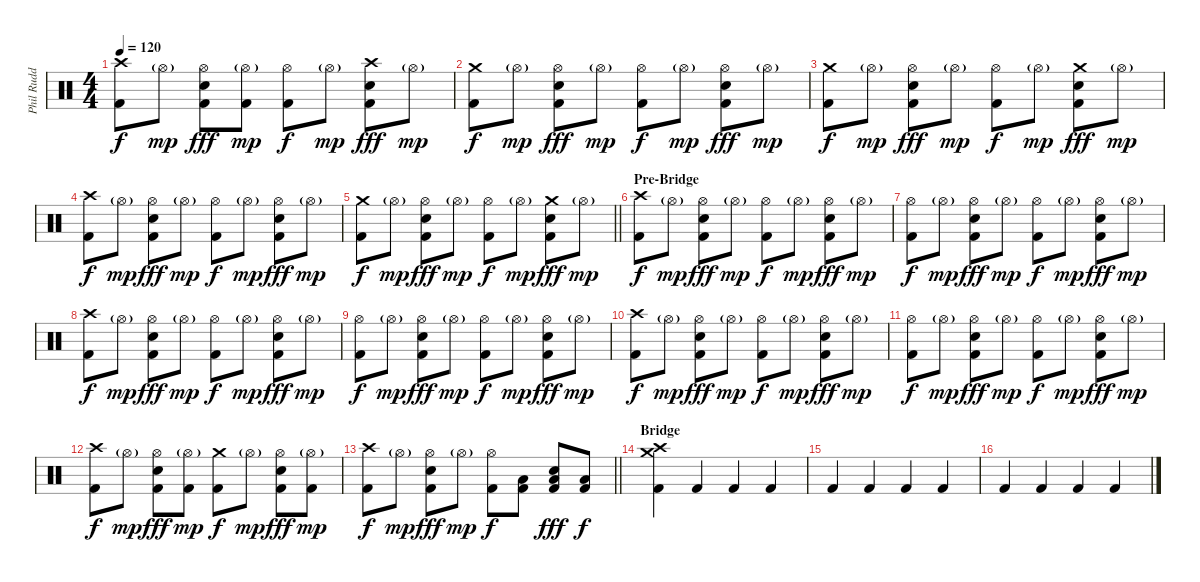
\track ("Phil Rudd" "Phil Rudd") {instrument percussion}
\staff {score}
\articulation defaults
\ts (4 4)
\tempo 120
\clef neutral
\ks c
("Crash high (hit)" "Kick (hit) 2").8{dy f} "Hi-Hat (open)"{g}.8{dy mp} ("Hi-Hat (open)" "Electric Snare (hit)" "Kick (hit) 2").8{dy fff} ("Hi-Hat (open)"{g} "Kick (hit) 2").8{dy mp} ("Hi-Hat (open)" "Kick (hit) 2").8{dy f} "Hi-Hat (open)"{g}.8{dy mp} ("Crash high (hit)" "Electric Snare (hit)" "Kick (hit) 2").8{dy fff} "Hi-Hat (open)"{g}.8{dy mp} |
("Crash medium (hit)" "Kick (hit) 2").8{dy f} "Hi-Hat (open)"{g}.8{dy mp} ("Hi-Hat (open)" "Electric Snare (hit)" "Kick (hit) 2").8{dy fff} "Hi-Hat (open)"{g}.8{dy mp} ("Hi-Hat (open)" "Kick (hit) 2").8{dy f} "Hi-Hat (open)"{g}.8{dy mp} ("Hi-Hat (open)" "Electric Snare (hit)" "Kick (hit) 2").8{dy fff} "Hi-Hat (open)"{g}.8{dy mp} |
("Crash medium (hit)" "Kick (hit) 2").8{dy f} "Hi-Hat (open)"{g}.8{dy mp} ("Hi-Hat (open)" "Electric Snare (hit)" "Kick (hit) 2").8{dy fff} "Hi-Hat (open)"{g}.8{dy mp} ("Hi-Hat (open)" "Kick (hit) 2").8{dy f} "Hi-Hat (open)"{g}.8{dy mp} ("Crash medium (hit)" "Electric Snare (hit)" "Kick (hit) 2").8{dy fff} "Hi-Hat (open)"{g}.8{dy mp} |
("Crash high (hit)" "Kick (hit) 2").8{dy f} "Hi-Hat (open)"{g}.8{dy mp} ("Hi-Hat (open)" "Electric Snare (hit)" "Kick (hit) 2").8{dy fff} "Hi-Hat (open)"{g}.8{dy mp} ("Hi-Hat (open)" "Kick (hit) 2").8{dy f} "Hi-Hat (open)"{g}.8{dy mp} ("Hi-Hat (open)" "Electric Snare (hit)" "Kick (hit) 2").8{dy fff} "Hi-Hat (open)"{g}.8{dy mp} |
\barLineRight lightlight
("Crash medium (hit)" "Kick (hit) 2").8{dy f} "Hi-Hat (open)"{g}.8{dy mp} ("Hi-Hat (open)" "Electric Snare (hit)" "Kick (hit) 2").8{dy fff} "Hi-Hat (open)"{g}.8{dy mp} ("Hi-Hat (open)" "Kick (hit) 2").8{dy f} "Hi-Hat (open)"{g}.8{dy mp} ("Crash medium (hit)" "Electric Snare (hit)" "Kick (hit) 2").8{dy fff} "Hi-Hat (open)"{g}.8{dy mp} |
\section ("" "Pre-Bridge")
("Crash high (hit)" "Kick (hit) 2").8{dy f} "Hi-Hat (open)"{g}.8{dy mp} ("Hi-Hat (open)" "Electric Snare (hit)" "Kick (hit) 2").8{dy fff} "Hi-Hat (open)"{g}.8{dy mp} ("Hi-Hat (open)" "Kick (hit) 2").8{dy f} "Hi-Hat (open)"{g}.8{dy mp} ("Hi-Hat (open)" "Electric Snare (hit)" "Kick (hit) 2").8{dy fff} "Hi-Hat (open)"{g}.8{dy mp} |
("Hi-Hat (open)" "Kick (hit) 2").8{dy f} "Hi-Hat (open)"{g}.8{dy mp} ("Hi-Hat (open)" "Electric Snare (hit)" "Kick (hit) 2").8{dy fff} "Hi-Hat (open)"{g}.8{dy mp} ("Hi-Hat (open)" "Kick (hit) 2").8{dy f} "Hi-Hat (open)"{g}.8{dy mp} ("Hi-Hat (open)" "Electric Snare (hit)" "Kick (hit) 2").8{dy fff} "Hi-Hat (open)"{g}.8{dy mp} |
("Crash high (hit)" "Kick (hit) 2").8{dy f} "Hi-Hat (open)"{g}.8{dy mp} ("Hi-Hat (open)" "Electric Snare (hit)" "Kick (hit) 2").8{dy fff} "Hi-Hat (open)"{g}.8{dy mp} ("Hi-Hat (open)" "Kick (hit) 2").8{dy f} "Hi-Hat (open)"{g}.8{dy mp} ("Hi-Hat (open)" "Electric Snare (hit)" "Kick (hit) 2").8{dy fff} "Hi-Hat (open)"{g}.8{dy mp} |
("Hi-Hat (open)" "Kick (hit) 2").8{dy f} "Hi-Hat (open)"{g}.8{dy mp} ("Hi-Hat (open)" "Electric Snare (hit)" "Kick (hit) 2").8{dy fff} "Hi-Hat (open)"{g}.8{dy mp} ("Hi-Hat (open)" "Kick (hit) 2").8{dy f} "Hi-Hat (open)"{g}.8{dy mp} ("Hi-Hat (open)" "Electric Snare (hit)" "Kick (hit) 2").8{dy fff} "Hi-Hat (open)"{g}.8{dy mp} |
("Crash high (hit)" "Kick (hit) 2").8{dy f} "Hi-Hat (open)"{g}.8{dy mp} ("Hi-Hat (open)" "Electric Snare (hit)" "Kick (hit) 2").8{dy fff} "Hi-Hat (open)"{g}.8{dy mp} ("Hi-Hat (open)" "Kick (hit) 2").8{dy f} "Hi-Hat (open)"{g}.8{dy mp} ("Hi-Hat (open)" "Electric Snare (hit)" "Kick (hit) 2").8{dy fff} "Hi-Hat (open)"{g}.8{dy mp} |
("Hi-Hat (open)" "Kick (hit) 2").8{dy f} "Hi-Hat (open)"{g}.8{dy mp} ("Hi-Hat (open)" "Electric Snare (hit)" "Kick (hit) 2").8{dy fff} "Hi-Hat (open)"{g}.8{dy mp} ("Hi-Hat (open)" "Kick (hit) 2").8{dy f} "Hi-Hat (open)"{g}.8{dy mp} ("Hi-Hat (open)" "Electric Snare (hit)" "Kick (hit) 2").8{dy fff} "Hi-Hat (open)"{g}.8{dy mp} |
("Crash high (hit)" "Kick (hit) 2").8{dy f} "Hi-Hat (open)"{g}.8{dy mp} ("Hi-Hat (open)" "Electric Snare (hit)" "Kick (hit) 2").8{dy fff} ("Hi-Hat (open)"{g} "Kick (hit) 2").8{dy mp} ("Crash medium (hit)" "Kick (hit) 2").8{dy f} "Hi-Hat (open)"{g}.8{dy mp} ("Hi-Hat (open)" "Electric Snare (hit)" "Kick (hit) 2").8{dy fff} ("Hi-Hat (open)"{g} "Kick (hit) 2").8{dy mp} |
\barLineRight lightlight
("Crash high (hit)" "Kick (hit) 2").8{dy f} "Hi-Hat (open)"{g}.8{dy mp} ("Hi-Hat (open)" "Electric Snare (hit)" "Kick (hit) 2").8{dy fff} "Hi-Hat (open)"{g}.8{dy mp} ("Hi-Hat (open)" "Kick (hit) 2").8{dy f} ("Low Floor Tom (hit)" "Kick (hit) 2").8 ("Electric Snare (hit)" "Low Floor Tom (hit)" "Kick (hit) 2").8{dy fff} ("Low Floor Tom (hit)" "Kick (hit) 2").8{dy f} |
\section ("" "Bridge")
("Crash high (hit)" "Crash medium (hit)" "Kick (hit) 2").4 "Kick (hit) 2".4 "Kick (hit) 2".4 "Kick (hit) 2".4 |
"Kick (hit) 2".4 "Kick (hit) 2".4 "Kick (hit) 2".4 "Kick (hit) 2".4 |
"Kick (hit) 2".4 "Kick (hit) 2".4 "Kick (hit) 2".4 "Kick (hit) 2".4
